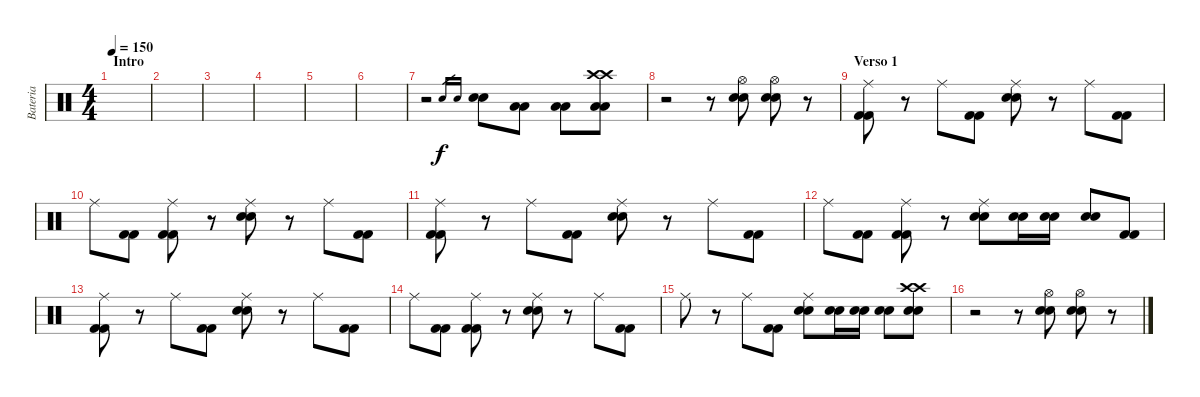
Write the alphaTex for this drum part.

\track ("Bateria" "Bateria") {instrument percussion}
\staff {score}
\articulation defaults
\ts (4 4)
\section ("" "Intro")
\tempo 150
\clef neutral
\ks c
|
|
|
|
|
|
r.2 "Electric Snare (hit)".16{gr} "Electric Snare (hit)".16{gr} ("Electric Snare (hit)" "Electric Snare (hit)").8 ("Low Tom (hit)" "Low Tom (hit)").8 ("Low Tom (hit)" "Low Tom (hit)").8 ("Crash high (hit)" "Crash high (hit)" "Low Tom (hit)" "Low Tom (hit)").8 |
r.2 r.8 ("Hi-Hat (open)" "Electric Snare (hit)" "Electric Snare (hit)").8 ("Hi-Hat (open)" "Electric Snare (hit)" "Electric Snare (hit)").8 r.8 |
\section ("" "Verso 1")
("Ride (middle)" "Kick (hit) 2" "Kick (hit) 2").8 r.8 "Ride (middle)".8 ("Kick (hit) 2" "Kick (hit) 2").8 ("Ride (middle)" "Electric Snare (hit)" "Electric Snare (hit)").8 r.8 "Ride (middle)".8 ("Kick (hit) 2" "Kick (hit) 2").8 |
"Ride (middle)".8 ("Kick (hit) 2" "Kick (hit) 2").8 ("Ride (middle)" "Kick (hit) 2" "Kick (hit) 2").8 r.8 ("Ride (middle)" "Electric Snare (hit)" "Electric Snare (hit)").8 r.8 "Ride (middle)".8 ("Kick (hit) 2" "Kick (hit) 2").8 |
("Ride (middle)" "Kick (hit) 2" "Kick (hit) 2").8 r.8 "Ride (middle)".8 ("Kick (hit) 2" "Kick (hit) 2").8 ("Ride (middle)" "Electric Snare (hit)" "Electric Snare (hit)").8 r.8 "Ride (middle)".8 ("Kick (hit) 2" "Kick (hit) 2").8 |
"Ride (middle)".8 ("Kick (hit) 2" "Kick (hit) 2").8 ("Ride (middle)" "Kick (hit) 2" "Kick (hit) 2").8 r.8 ("Ride (middle)" "Electric Snare (hit)" "Electric Snare (hit)").8 ("Electric Snare (hit)" "Electric Snare (hit)").16 ("Electric Snare (hit)" "Electric Snare (hit)").16 ("Electric Snare (hit)" "Electric Snare (hit)").8 ("Kick (hit) 2" "Kick (hit) 2").8 |
("Ride (middle)" "Kick (hit) 2" "Kick (hit) 2").8 r.8 "Ride (middle)".8 ("Kick (hit) 2" "Kick (hit) 2").8 ("Ride (middle)" "Electric Snare (hit)" "Electric Snare (hit)").8 r.8 "Ride (middle)".8 ("Kick (hit) 2" "Kick (hit) 2").8 |
"Ride (middle)".8 ("Kick (hit) 2" "Kick (hit) 2").8 ("Ride (middle)" "Kick (hit) 2" "Kick (hit) 2").8 r.8 ("Ride (middle)" "Electric Snare (hit)" "Electric Snare (hit)").8 r.8 "Ride (middle)".8 ("Kick (hit) 2" "Kick (hit) 2").8 |
"Ride (middle)".8 r.8 "Ride (middle)".8 ("Kick (hit) 2" "Kick (hit) 2").8 ("Ride (middle)" "Electric Snare (hit)" "Electric Snare (hit)").8 ("Electric Snare (hit)" "Electric Snare (hit)").16 ("Electric Snare (hit)" "Electric Snare (hit)").16 ("Electric Snare (hit)" "Electric Snare (hit)").8 ("Crash high (hit)" "Crash high (hit)" "Electric Snare (hit)" "Electric Snare (hit)").8 |
r.2 r.8 ("Hi-Hat (open)" "Electric Snare (hit)" "Electric Snare (hit)").8 ("Hi-Hat (open)" "Electric Snare (hit)" "Electric Snare (hit)").8 r.8
